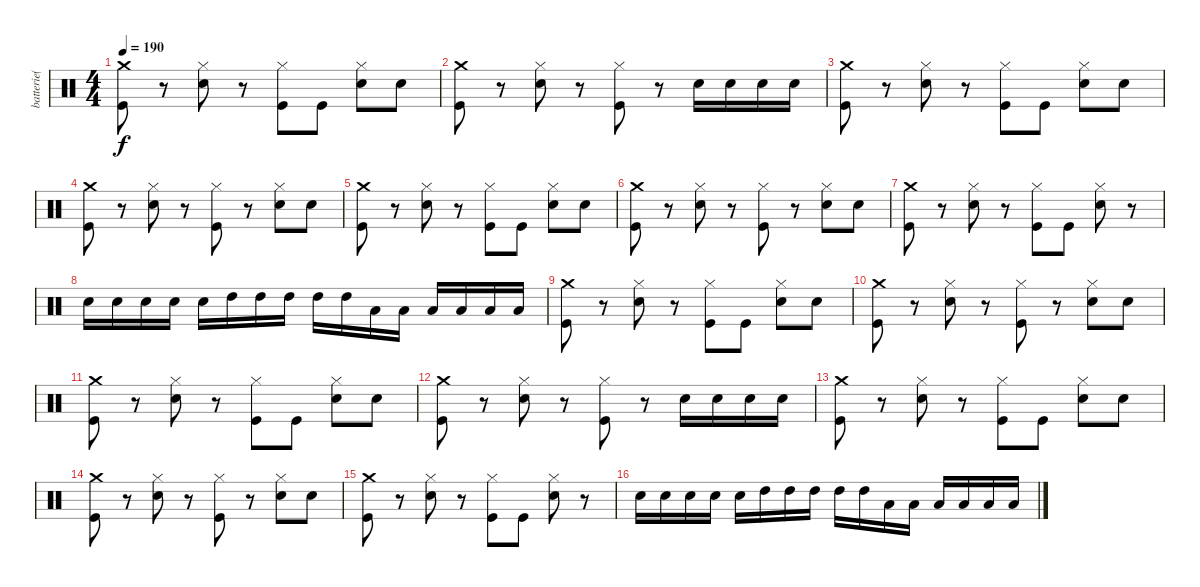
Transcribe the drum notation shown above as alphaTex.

\track ("batterie( Meggers )" "batterie( ") {instrument percussion}
\staff {score}
\articulation defaults
\ts (4 4)
\tempo 190
\clef neutral
\ks c
("Crash medium (hit)" "Kick (hit)").8{dy f} r.8 ("Hi-Hat (closed)" "Snare (hit) 2").8 r.8 ("Hi-Hat (closed)" "Kick (hit)").8 "Kick (hit)".8 ("Hi-Hat (closed)" "Snare (hit) 2").8 "Snare (hit) 2".8 |
("Crash medium (hit)" "Kick (hit)").8 r.8 ("Hi-Hat (closed)" "Snare (hit) 2").8 r.8 ("Hi-Hat (closed)" "Kick (hit)").8 r.8 "Snare (hit) 2".16 "Snare (hit) 2".16 "Snare (hit) 2".16 "Snare (hit) 2".16 |
("Crash medium (hit)" "Kick (hit)").8 r.8 ("Hi-Hat (closed)" "Snare (hit) 2").8 r.8 ("Hi-Hat (closed)" "Kick (hit)").8 "Kick (hit)".8 ("Hi-Hat (closed)" "Snare (hit) 2").8 "Snare (hit) 2".8 |
("Crash medium (hit)" "Kick (hit)").8 r.8 ("Hi-Hat (closed)" "Snare (hit) 2").8 r.8 ("Hi-Hat (closed)" "Kick (hit)").8 r.8 ("Hi-Hat (closed)" "Snare (hit) 2").8 "Snare (hit) 2".8 |
("Crash medium (hit)" "Kick (hit)").8 r.8 ("Hi-Hat (closed)" "Snare (hit) 2").8 r.8 ("Hi-Hat (closed)" "Kick (hit)").8 "Kick (hit)".8 ("Hi-Hat (closed)" "Snare (hit) 2").8 "Snare (hit) 2".8 |
("Crash medium (hit)" "Kick (hit)").8 r.8 ("Hi-Hat (closed)" "Snare (hit) 2").8 r.8 ("Hi-Hat (closed)" "Kick (hit)").8 r.8 ("Hi-Hat (closed)" "Snare (hit) 2").8 "Snare (hit) 2".8 |
("Crash medium (hit)" "Kick (hit)").8 r.8 ("Hi-Hat (closed)" "Snare (hit) 2").8 r.8 ("Hi-Hat (closed)" "Kick (hit)").8 "Kick (hit)".8 ("Hi-Hat (closed)" "Snare (hit) 2").8 r.8 |
"Snare (hit) 2".16 "Snare (hit) 2".16 "Snare (hit) 2".16 "Snare (hit) 2".16 "Snare (hit) 2".16 "High Tom (hit)".16 "High Tom (hit)".16 "High Tom (hit)".16 "High Tom (hit)".16 "High Tom (hit)".16 "Low Tom (hit)".16 "Low Tom (hit)".16 "Low Tom (hit)".16 "Low Tom (hit)".16 "Low Tom (hit)".16 "Low Tom (hit)".16 |
("Crash medium (hit)" "Kick (hit)").8 r.8 ("Hi-Hat (closed)" "Snare (hit) 2").8 r.8 ("Hi-Hat (closed)" "Kick (hit)").8 "Kick (hit)".8 ("Hi-Hat (closed)" "Snare (hit) 2").8 "Snare (hit) 2".8 |
("Crash medium (hit)" "Kick (hit)").8 r.8 ("Hi-Hat (closed)" "Snare (hit) 2").8 r.8 ("Hi-Hat (closed)" "Kick (hit)").8 r.8 ("Hi-Hat (closed)" "Snare (hit) 2").8 "Snare (hit) 2".8 |
("Crash medium (hit)" "Kick (hit)").8 r.8 ("Hi-Hat (closed)" "Snare (hit) 2").8 r.8 ("Hi-Hat (closed)" "Kick (hit)").8 "Kick (hit)".8 ("Hi-Hat (closed)" "Snare (hit) 2").8 "Snare (hit) 2".8 |
("Crash medium (hit)" "Kick (hit)").8 r.8 ("Hi-Hat (closed)" "Snare (hit) 2").8 r.8 ("Hi-Hat (closed)" "Kick (hit)").8 r.8 "Snare (hit) 2".16 "Snare (hit) 2".16 "Snare (hit) 2".16 "Snare (hit) 2".16 |
("Crash medium (hit)" "Kick (hit)").8 r.8 ("Hi-Hat (closed)" "Snare (hit) 2").8 r.8 ("Hi-Hat (closed)" "Kick (hit)").8 "Kick (hit)".8 ("Hi-Hat (closed)" "Snare (hit) 2").8 "Snare (hit) 2".8 |
("Crash medium (hit)" "Kick (hit)").8 r.8 ("Hi-Hat (closed)" "Snare (hit) 2").8 r.8 ("Hi-Hat (closed)" "Kick (hit)").8 r.8 ("Hi-Hat (closed)" "Snare (hit) 2").8 "Snare (hit) 2".8 |
("Crash medium (hit)" "Kick (hit)").8 r.8 ("Hi-Hat (closed)" "Snare (hit) 2").8 r.8 ("Hi-Hat (closed)" "Kick (hit)").8 "Kick (hit)".8 ("Hi-Hat (closed)" "Snare (hit) 2").8 r.8 |
"Snare (hit) 2".16 "Snare (hit) 2".16 "Snare (hit) 2".16 "Snare (hit) 2".16 "Snare (hit) 2".16 "High Tom (hit)".16 "High Tom (hit)".16 "High Tom (hit)".16 "High Tom (hit)".16 "High Tom (hit)".16 "Low Tom (hit)".16 "Low Tom (hit)".16 "Low Tom (hit)".16 "Low Tom (hit)".16 "Low Tom (hit)".16 "Low Tom (hit)".16
